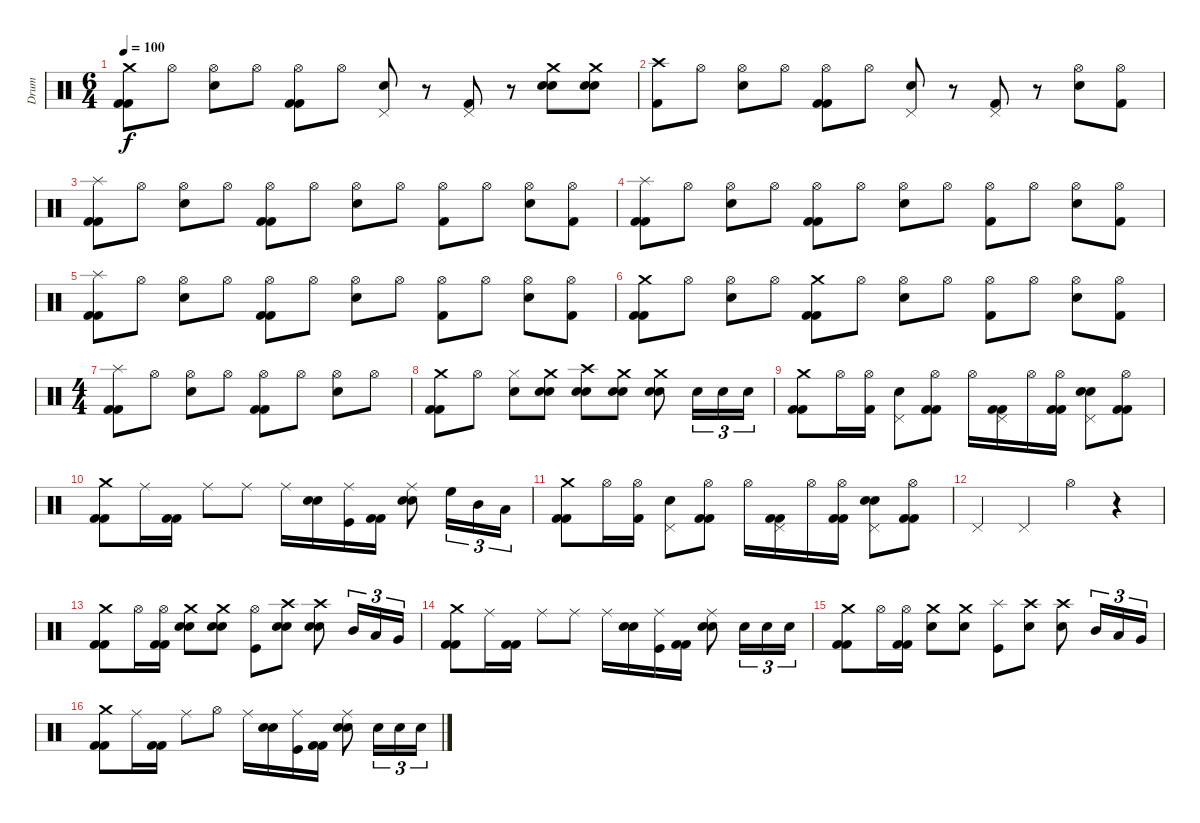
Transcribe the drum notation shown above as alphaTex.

\track ("Drum" "Drum") {instrument percussion}
\staff {score}
\articulation defaults
\ts (6 4)
\tempo 100
\clef neutral
\ks c
("Crash medium (hit)" "Kick (hit) 2" "Kick (hit) 2").8{dy f} "Hi-Hat (open)".8 ("Hi-Hat (open)" "Snare (hit) 2").8 "Hi-Hat (open)".8 ("Hi-Hat (open)" "Kick (hit) 2" "Kick (hit) 2").8 "Hi-Hat (open)".8 ("Pedal Hi-Hat (hit)" "Snare (hit) 2").8 r.8 ("Pedal Hi-Hat (hit)" "Kick (hit) 2").8 r.8 ("Crash medium (hit)" "Snare (hit) 2" "Snare (hit) 2").8 ("Crash medium (hit)" "Snare (hit) 2" "Snare (hit) 2").8 |
("Crash high (hit)" "Kick (hit) 2").8 "Hi-Hat (open)".8 ("Hi-Hat (open)" "Snare (hit) 2").8 "Hi-Hat (open)".8 ("Hi-Hat (open)" "Kick (hit) 2" "Kick (hit) 2").8 "Hi-Hat (open)".8 ("Pedal Hi-Hat (hit)" "Snare (hit) 2").8 r.8 ("Pedal Hi-Hat (hit)" "Kick (hit) 2").8 r.8 ("Hi-Hat (open)" "Snare (hit) 2").8 ("Hi-Hat (open)" "Kick (hit) 2").8 |
("Splash (hit)" "Kick (hit) 2" "Kick (hit) 2").8 "Hi-Hat (open)".8 ("Hi-Hat (open)" "Snare (hit) 2").8 "Hi-Hat (open)".8 ("Hi-Hat (open)" "Kick (hit) 2" "Kick (hit) 2").8 "Hi-Hat (open)".8 ("Hi-Hat (open)" "Snare (hit) 2").8 "Hi-Hat (open)".8 ("Hi-Hat (open)" "Kick (hit) 2").8 "Hi-Hat (open)".8 ("Hi-Hat (open)" "Snare (hit) 2").8 ("Hi-Hat (open)" "Kick (hit) 2").8 |
("Splash (hit)" "Kick (hit) 2" "Kick (hit) 2").8 "Hi-Hat (open)".8 ("Hi-Hat (open)" "Snare (hit) 2").8 "Hi-Hat (open)".8 ("Hi-Hat (open)" "Kick (hit) 2" "Kick (hit) 2").8 "Hi-Hat (open)".8 ("Hi-Hat (open)" "Snare (hit) 2").8 "Hi-Hat (open)".8 ("Hi-Hat (open)" "Kick (hit) 2").8 "Hi-Hat (open)".8 ("Hi-Hat (open)" "Snare (hit) 2").8 ("Hi-Hat (open)" "Kick (hit) 2").8 |
("Splash (hit)" "Kick (hit) 2" "Kick (hit) 2").8 "Hi-Hat (open)".8 ("Hi-Hat (open)" "Snare (hit) 2").8 "Hi-Hat (open)".8 ("Hi-Hat (open)" "Kick (hit) 2" "Kick (hit) 2").8 "Hi-Hat (open)".8 ("Hi-Hat (open)" "Snare (hit) 2").8 "Hi-Hat (open)".8 ("Hi-Hat (open)" "Kick (hit) 2").8 "Hi-Hat (open)".8 ("Hi-Hat (open)" "Snare (hit) 2").8 ("Hi-Hat (open)" "Kick (hit) 2").8 |
("Crash medium (hit)" "Kick (hit) 2" "Kick (hit) 2").8 "Hi-Hat (open)".8 ("Hi-Hat (open)" "Snare (hit) 2").8 "Hi-Hat (open)".8 ("Crash medium (hit)" "Kick (hit) 2" "Kick (hit) 2").8 "Hi-Hat (open)".8 ("Hi-Hat (open)" "Snare (hit) 2").8 "Hi-Hat (open)".8 ("Hi-Hat (open)" "Kick (hit) 2").8 "Hi-Hat (open)".8 ("Hi-Hat (open)" "Snare (hit) 2").8 ("Hi-Hat (open)" "Kick (hit) 2").8 |
\ts (4 4)
("Splash (hit)" "Kick (hit) 2" "Kick (hit) 2").8 "Hi-Hat (open)".8 ("Hi-Hat (open)" "Snare (hit) 2").8 "Hi-Hat (open)".8 ("Hi-Hat (open)" "Kick (hit) 2" "Kick (hit) 2").8 "Hi-Hat (open)".8 ("Hi-Hat (open)" "Snare (hit) 2").8 "Hi-Hat (open)".8 |
("Crash medium (hit)" "Kick (hit) 2" "Kick (hit) 2").8 "Hi-Hat (open)".8 ("Hi-Hat (closed)" "Snare (hit) 2").8 ("Crash medium (hit)" "Snare (hit) 2" "Snare (hit) 2").8 ("Crash high (hit)" "Snare (hit) 2" "Snare (hit) 2").8 ("Crash medium (hit)" "Snare (hit) 2" "Snare (hit) 2").8 ("Crash medium (hit)" "Snare (hit) 2" "Snare (hit) 2").8 "Electric Snare (hit)".16{tu (3 2)} "Electric Snare (hit)".16{tu (3 2)} "Electric Snare (hit)".16{tu (3 2)} |
("Crash medium (hit)" "Kick (hit) 2" "Kick (hit) 2").8 "Hi-Hat (open)".16 ("Hi-Hat (open)" "Kick (hit) 2").16 ("Pedal Hi-Hat (hit)" "Snare (hit) 2").8 ("Hi-Hat (open)" "Kick (hit) 2" "Kick (hit) 2").8 "Hi-Hat (open)".16 ("Pedal Hi-Hat (hit)" "Kick (hit) 2" "Kick (hit) 2").16 "Hi-Hat (open)".16 ("Hi-Hat (open)" "Kick (hit) 2" "Kick (hit) 2").16 ("Pedal Hi-Hat (hit)" "Snare (hit) 2" "Snare (hit) 2").8 ("Hi-Hat (open)" "Kick (hit) 2" "Kick (hit) 2").8 |
("Crash medium (hit)" "Kick (hit) 2" "Kick (hit) 2").8 "Ride (middle)".16 ("Kick (hit) 2" "Kick (hit) 2").16 "Ride (middle)".8 "Ride (middle)".8 "Ride (middle)".16 ("Snare (hit) 2" "Snare (hit) 2").16 ("Ride (middle)" "Kick (hit)").16 ("Kick (hit) 2" "Kick (hit) 2").16 ("Ride (middle)" "Snare (hit) 2" "Snare (hit) 2").8 "High Floor Tom (hit)".16{tu (3 2)} "Mid Tom (hit)".16{tu (3 2)} "Low Tom (hit)".16{tu (3 2)} |
("Crash medium (hit)" "Kick (hit) 2" "Kick (hit) 2").8 "Hi-Hat (open)".16 ("Hi-Hat (open)" "Kick (hit) 2").16 ("Pedal Hi-Hat (hit)" "Snare (hit) 2").8 ("Hi-Hat (open)" "Kick (hit) 2" "Kick (hit) 2").8 "Hi-Hat (open)".16 ("Pedal Hi-Hat (hit)" "Kick (hit) 2" "Kick (hit) 2").16 "Hi-Hat (open)".16 ("Hi-Hat (open)" "Kick (hit) 2" "Kick (hit) 2").16 ("Pedal Hi-Hat (hit)" "Snare (hit) 2" "Snare (hit) 2").8 ("Hi-Hat (open)" "Kick (hit) 2" "Kick (hit) 2").8 |
"Pedal Hi-Hat (hit)".4 "Pedal Hi-Hat (hit)".4 "Hi-Hat (open)".4 r.4 |
("Crash medium (hit)" "Kick (hit) 2" "Kick (hit) 2").8 "Hi-Hat (open)".16 ("Hi-Hat (open)" "Kick (hit) 2" "Kick (hit) 2").16 ("Crash medium (hit)" "Snare (hit) 2" "Snare (hit) 2").8 ("Crash medium (hit)" "Snare (hit) 2" "Snare (hit) 2").8 ("Hi-Hat (open)" "Kick (hit)").8 ("Crash high (hit)" "Snare (hit) 2" "Snare (hit) 2").8 ("Crash high (hit)" "Snare (hit) 2" "Snare (hit) 2").8 "Mid Tom (hit)".16{tu (3 2)} "Low Tom (hit)".16{tu (3 2)} "Very Low Tom (hit)".16{tu (3 2)} |
("Crash medium (hit)" "Kick (hit) 2" "Kick (hit) 2").8 "Ride (middle)".16 ("Kick (hit) 2" "Kick (hit) 2").16 "Ride (middle)".8 "Ride (middle)".8 "Ride (middle)".16 ("Snare (hit) 2" "Snare (hit) 2").16 ("Ride (middle)" "Kick (hit)").16 ("Kick (hit) 2" "Kick (hit) 2").16 ("Ride (middle)" "Snare (hit) 2" "Snare (hit) 2").8 "Electric Snare (hit)".16{tu (3 2)} "Electric Snare (hit)".16{tu (3 2)} "Electric Snare (hit)".16{tu (3 2)} |
("Crash medium (hit)" "Kick (hit) 2" "Kick (hit) 2").8 "Hi-Hat (open)".16 ("Hi-Hat (open)" "Kick (hit) 2" "Kick (hit) 2").16 ("Crash medium (hit)" "Electric Snare (hit)").8 ("Crash medium (hit)" "Electric Snare (hit)").8 ("Splash (hit)" "Kick (hit)").8 ("Crash high (hit)" "Electric Snare (hit)").8 ("Crash high (hit)" "Electric Snare (hit)").8 "Mid Tom (hit)".16{tu (3 2)} "Low Tom (hit)".16{tu (3 2)} "Very Low Tom (hit)".16{tu (3 2)} |
("Crash medium (hit)" "Kick (hit) 2" "Kick (hit) 2").8 "Ride (middle)".16 ("Kick (hit) 2" "Kick (hit) 2").16 "Ride (middle)".8 "Hi-Hat (open)".8 "Ride (middle)".16 ("Snare (hit) 2" "Snare (hit) 2").16 ("Ride (middle)" "Kick (hit)").16 ("Kick (hit) 2" "Kick (hit) 2").16 ("Ride (middle)" "Snare (hit) 2" "Snare (hit) 2").8 "Electric Snare (hit)".16{tu (3 2)} "Electric Snare (hit)".16{tu (3 2)} "Electric Snare (hit)".16{tu (3 2)}
